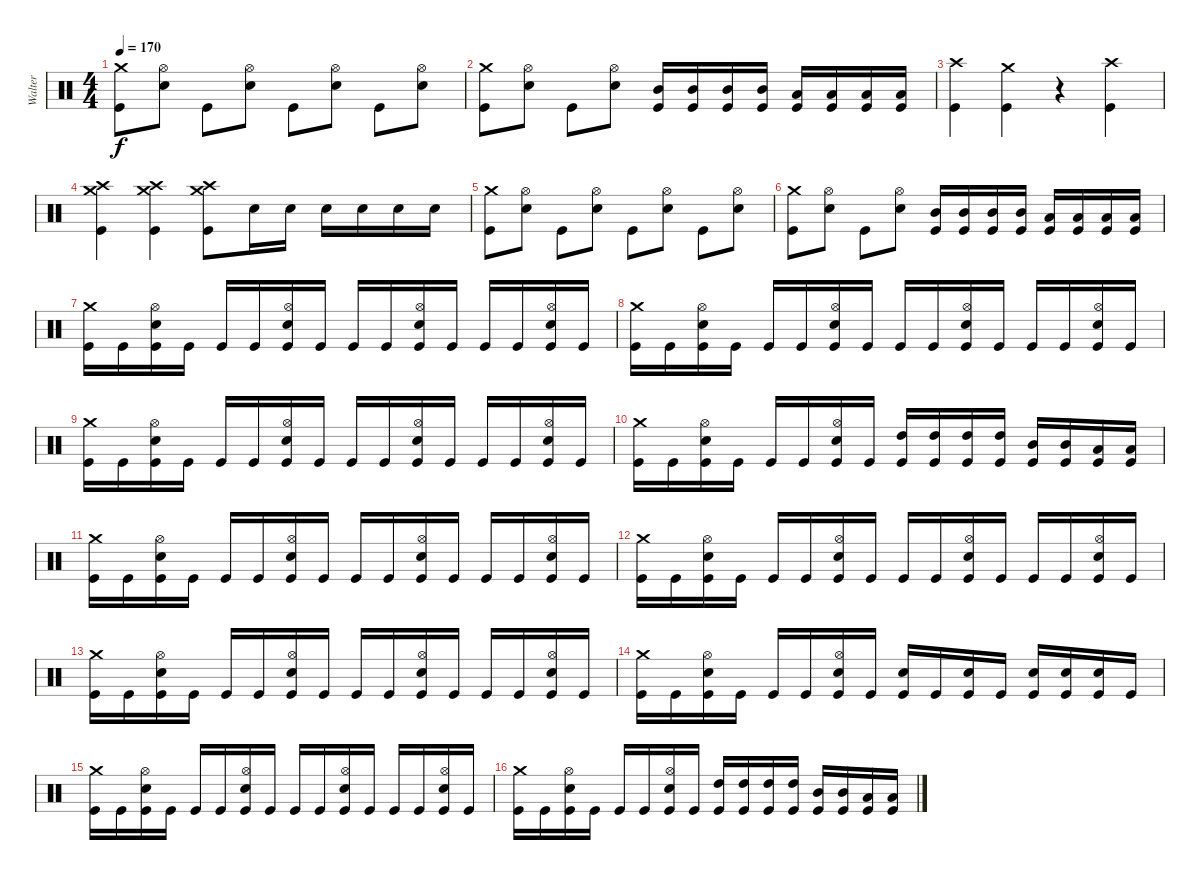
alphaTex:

\track ("Walter" "Walter") {instrument percussion}
\staff {score}
\articulation defaults
\ts (4 4)
\tempo 170
\clef neutral
\ks c
("Crash medium (hit)" "Kick (hit)").8{dy f} ("Hi-Hat (open)" "Electric Snare (hit)").8 "Kick (hit)".8 ("Hi-Hat (open)" "Electric Snare (hit)").8 "Kick (hit)".8 ("Hi-Hat (open)" "Electric Snare (hit)").8 "Kick (hit)".8 ("Hi-Hat (open)" "Electric Snare (hit)").8 |
("Crash medium (hit)" "Kick (hit)").8 ("Hi-Hat (open)" "Electric Snare (hit)").8 "Kick (hit)".8 ("Hi-Hat (open)" "Electric Snare (hit)").8 ("Mid Tom (hit)" "Kick (hit)").16 ("Mid Tom (hit)" "Kick (hit)").16 ("Mid Tom (hit)" "Kick (hit)").16 ("Mid Tom (hit)" "Kick (hit)").16 ("Low Tom (hit)" "Kick (hit)").16 ("Low Tom (hit)" "Kick (hit)").16 ("Low Tom (hit)" "Kick (hit)").16 ("Low Tom (hit)" "Kick (hit)").16 |
("Crash high (hit)" "Kick (hit)").4 ("Crash medium (hit)" "Kick (hit)").4 r.4 ("Crash high (hit)" "Kick (hit)").4 |
("Crash medium (hit)" "Crash high (hit)" "Kick (hit)").4 ("Crash high (hit)" "Crash medium (hit)" "Kick (hit)").4 ("Crash medium (hit)" "Crash high (hit)" "Kick (hit)").8 "Electric Snare (hit)".16 "Electric Snare (hit)".16 "Electric Snare (hit)".16 "Electric Snare (hit)".16 "Electric Snare (hit)".16 "Electric Snare (hit)".16 |
("Crash medium (hit)" "Kick (hit)").8 ("Hi-Hat (open)" "Electric Snare (hit)").8 "Kick (hit)".8 ("Hi-Hat (open)" "Electric Snare (hit)").8 "Kick (hit)".8 ("Hi-Hat (open)" "Electric Snare (hit)").8 "Kick (hit)".8 ("Hi-Hat (open)" "Electric Snare (hit)").8 |
("Crash medium (hit)" "Kick (hit)").8 ("Hi-Hat (open)" "Electric Snare (hit)").8 "Kick (hit)".8 ("Hi-Hat (open)" "Electric Snare (hit)").8 ("Mid Tom (hit)" "Kick (hit)").16 ("Mid Tom (hit)" "Kick (hit)").16 ("Mid Tom (hit)" "Kick (hit)").16 ("Mid Tom (hit)" "Kick (hit)").16 ("Low Tom (hit)" "Kick (hit)").16 ("Low Tom (hit)" "Kick (hit)").16 ("Low Tom (hit)" "Kick (hit)").16 ("Low Tom (hit)" "Kick (hit)").16 |
("Crash medium (hit)" "Kick (hit)").16 "Kick (hit)".16 ("Hi-Hat (open)" "Electric Snare (hit)" "Kick (hit)").16 "Kick (hit)".16 "Kick (hit)".16 "Kick (hit)".16 ("Hi-Hat (open)" "Electric Snare (hit)" "Kick (hit)").16 "Kick (hit)".16 "Kick (hit)".16 "Kick (hit)".16 ("Hi-Hat (open)" "Electric Snare (hit)" "Kick (hit)").16 "Kick (hit)".16 "Kick (hit)".16 "Kick (hit)".16 ("Hi-Hat (open)" "Electric Snare (hit)" "Kick (hit)").16 "Kick (hit)".16 |
("Crash medium (hit)" "Kick (hit)").16 "Kick (hit)".16 ("Hi-Hat (open)" "Electric Snare (hit)" "Kick (hit)").16 "Kick (hit)".16 "Kick (hit)".16 "Kick (hit)".16 ("Hi-Hat (open)" "Electric Snare (hit)" "Kick (hit)").16 "Kick (hit)".16 "Kick (hit)".16 "Kick (hit)".16 ("Hi-Hat (open)" "Electric Snare (hit)" "Kick (hit)").16 "Kick (hit)".16 "Kick (hit)".16 "Kick (hit)".16 ("Hi-Hat (open)" "Electric Snare (hit)" "Kick (hit)").16 "Kick (hit)".16 |
("Crash medium (hit)" "Kick (hit)").16 "Kick (hit)".16 ("Hi-Hat (open)" "Electric Snare (hit)" "Kick (hit)").16 "Kick (hit)".16 "Kick (hit)".16 "Kick (hit)".16 ("Hi-Hat (open)" "Electric Snare (hit)" "Kick (hit)").16 "Kick (hit)".16 "Kick (hit)".16 "Kick (hit)".16 ("Hi-Hat (open)" "Electric Snare (hit)" "Kick (hit)").16 "Kick (hit)".16 "Kick (hit)".16 "Kick (hit)".16 ("Hi-Hat (open)" "Electric Snare (hit)" "Kick (hit)").16 "Kick (hit)".16 |
("Crash medium (hit)" "Kick (hit)").16 "Kick (hit)".16 ("Hi-Hat (open)" "Electric Snare (hit)" "Kick (hit)").16 "Kick (hit)".16 "Kick (hit)".16 "Kick (hit)".16 ("Hi-Hat (open)" "Electric Snare (hit)" "Kick (hit)").16 "Kick (hit)".16 ("High Tom (hit)" "Kick (hit)").16 ("High Tom (hit)" "Kick (hit)").16 ("High Tom (hit)" "Kick (hit)").16 ("High Tom (hit)" "Kick (hit)").16 ("Mid Tom (hit)" "Kick (hit)").16 ("Mid Tom (hit)" "Kick (hit)").16 ("Low Tom (hit)" "Kick (hit)").16 ("Low Tom (hit)" "Kick (hit)").16 |
("Crash medium (hit)" "Kick (hit)").16 "Kick (hit)".16 ("Hi-Hat (open)" "Electric Snare (hit)" "Kick (hit)").16 "Kick (hit)".16 "Kick (hit)".16 "Kick (hit)".16 ("Hi-Hat (open)" "Electric Snare (hit)" "Kick (hit)").16 "Kick (hit)".16 "Kick (hit)".16 "Kick (hit)".16 ("Hi-Hat (open)" "Electric Snare (hit)" "Kick (hit)").16 "Kick (hit)".16 "Kick (hit)".16 "Kick (hit)".16 ("Hi-Hat (open)" "Electric Snare (hit)" "Kick (hit)").16 "Kick (hit)".16 |
("Crash medium (hit)" "Kick (hit)").16 "Kick (hit)".16 ("Hi-Hat (open)" "Electric Snare (hit)" "Kick (hit)").16 "Kick (hit)".16 "Kick (hit)".16 "Kick (hit)".16 ("Hi-Hat (open)" "Electric Snare (hit)" "Kick (hit)").16 "Kick (hit)".16 "Kick (hit)".16 "Kick (hit)".16 ("Hi-Hat (open)" "Electric Snare (hit)" "Kick (hit)").16 "Kick (hit)".16 "Kick (hit)".16 "Kick (hit)".16 ("Hi-Hat (open)" "Electric Snare (hit)" "Kick (hit)").16 "Kick (hit)".16 |
("Crash medium (hit)" "Kick (hit)").16 "Kick (hit)".16 ("Hi-Hat (open)" "Electric Snare (hit)" "Kick (hit)").16 "Kick (hit)".16 "Kick (hit)".16 "Kick (hit)".16 ("Hi-Hat (open)" "Electric Snare (hit)" "Kick (hit)").16 "Kick (hit)".16 "Kick (hit)".16 "Kick (hit)".16 ("Hi-Hat (open)" "Electric Snare (hit)" "Kick (hit)").16 "Kick (hit)".16 "Kick (hit)".16 "Kick (hit)".16 ("Hi-Hat (open)" "Electric Snare (hit)" "Kick (hit)").16 "Kick (hit)".16 |
("Crash medium (hit)" "Kick (hit)").16 "Kick (hit)".16 ("Hi-Hat (open)" "Electric Snare (hit)" "Kick (hit)").16 "Kick (hit)".16 "Kick (hit)".16 "Kick (hit)".16 ("Hi-Hat (open)" "Electric Snare (hit)" "Kick (hit)").16 "Kick (hit)".16 ("Electric Snare (hit)" "Kick (hit)").16 "Kick (hit)".16 ("Electric Snare (hit)" "Kick (hit)").16 "Kick (hit)".16 ("Electric Snare (hit)" "Kick (hit)").16 ("Electric Snare (hit)" "Kick (hit)").16 ("Electric Snare (hit)" "Kick (hit)").16 "Kick (hit)".16 |
("Crash medium (hit)" "Kick (hit)").16 "Kick (hit)".16 ("Hi-Hat (open)" "Electric Snare (hit)" "Kick (hit)").16 "Kick (hit)".16 "Kick (hit)".16 "Kick (hit)".16 ("Hi-Hat (open)" "Electric Snare (hit)" "Kick (hit)").16 "Kick (hit)".16 "Kick (hit)".16 "Kick (hit)".16 ("Hi-Hat (open)" "Electric Snare (hit)" "Kick (hit)").16 "Kick (hit)".16 "Kick (hit)".16 "Kick (hit)".16 ("Hi-Hat (open)" "Electric Snare (hit)" "Kick (hit)").16 "Kick (hit)".16 |
("Crash medium (hit)" "Kick (hit)").16 "Kick (hit)".16 ("Hi-Hat (open)" "Electric Snare (hit)" "Kick (hit)").16 "Kick (hit)".16 "Kick (hit)".16 "Kick (hit)".16 ("Hi-Hat (open)" "Electric Snare (hit)" "Kick (hit)").16 "Kick (hit)".16 ("High Tom (hit)" "Kick (hit)").16 ("High Tom (hit)" "Kick (hit)").16 ("High Tom (hit)" "Kick (hit)").16 ("High Tom (hit)" "Kick (hit)").16 ("Mid Tom (hit)" "Kick (hit)").16 ("Mid Tom (hit)" "Kick (hit)").16 ("Low Tom (hit)" "Kick (hit)").16 ("Low Tom (hit)" "Kick (hit)").16
